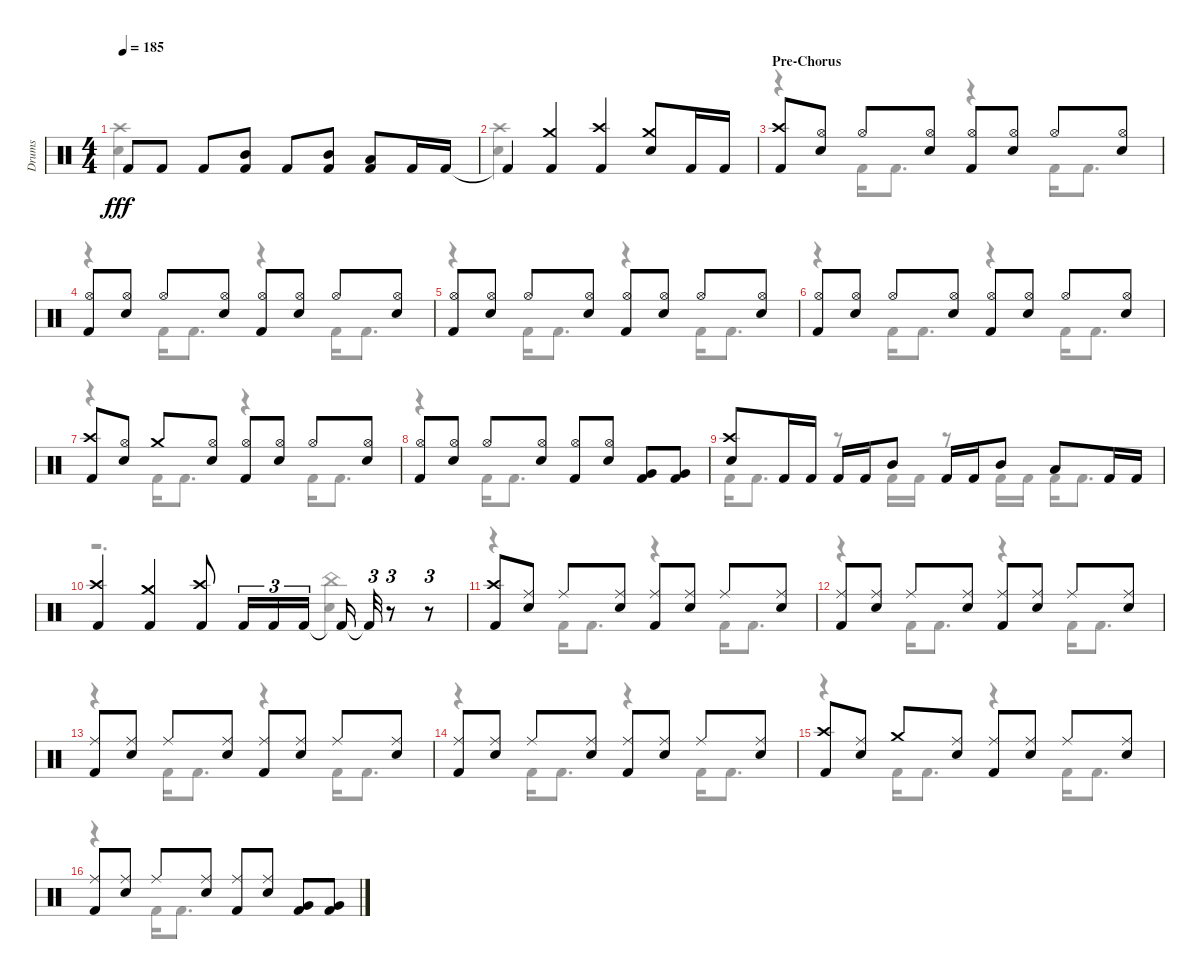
\track ("Drums" "Drums") {instrument percussion}
\staff {score}
\articulation defaults
\voice
\ts (4 4)
\tempo 185
\clef neutral
\ks aminor "Kick (hit) 2"{t}.8{dy fff} "Kick (hit) 2".8 "Kick (hit) 2".8
("Mid Tom (hit)" "Kick (hit) 2").8 "Kick (hit) 2".8 ("Mid Tom (hit)" "Kick (hit) 2").8 ("Low Tom (hit)" "Kick (hit) 2").8 "Kick (hit) 2".16 "Kick (hit) 2".16 |
"Kick (hit) 2"{t}.4 ("Crash medium (hit)" "Kick (hit) 2").4 ("Crash high (hit)" "Kick (hit) 2").4 ("Crash medium (hit)" "Snare (hit) 2").8 "Kick (hit) 2".16 "Kick (hit) 2".16 |
\section ("" "Pre-Chorus")
("Crash high (hit)" "Kick (hit) 2").8 ("Snare (hit) 2" "Hi-Hat (open)").8 "Hi-Hat (open)".8 ("Snare (hit) 2" "Hi-Hat (open)").8 ("Hi-Hat (open)" "Kick (hit) 2").8 ("Hi-Hat (open)" "Snare (hit) 2").8 "Hi-Hat (open)".8 ("Hi-Hat (open)" "Snare (hit) 2").8 |
("Hi-Hat (open)" "Kick (hit) 2").8 ("Hi-Hat (open)" "Snare (hit) 2").8 "Hi-Hat (open)".8 ("Snare (hit) 2" "Hi-Hat (open)").8 ("Hi-Hat (open)" "Kick (hit) 2").8 ("Snare (hit) 2" "Hi-Hat (open)").8 "Hi-Hat (open)".8 ("Snare (hit) 2" "Hi-Hat (open)").8 |
("Kick (hit) 2" "Hi-Hat (open)").8 ("Hi-Hat (open)" "Snare (hit) 2").8 "Hi-Hat (open)".8 ("Snare (hit) 2" "Hi-Hat (open)").8 ("Hi-Hat (open)" "Kick (hit) 2").8 ("Hi-Hat (open)" "Snare (hit) 2").8 "Hi-Hat (open)".8 ("Snare (hit) 2" "Hi-Hat (open)").8 |
("Hi-Hat (open)" "Kick (hit) 2").8 ("Snare (hit) 2" "Hi-Hat (open)").8 "Hi-Hat (open)".8 ("Snare (hit) 2" "Hi-Hat (open)").8 ("Hi-Hat (open)" "Kick (hit) 2").8 ("Hi-Hat (open)" "Snare (hit) 2").8 "Hi-Hat (open)".8 ("Hi-Hat (open)" "Snare (hit) 2").8 |
("Kick (hit) 2" "Crash high (hit)").8 ("Snare (hit) 2" "Hi-Hat (open)").8 "Crash medium (hit)".8 ("Snare (hit) 2" "Hi-Hat (open)").8 ("Kick (hit) 2" "Hi-Hat (open)").8 ("Snare (hit) 2" "Hi-Hat (open)").8 "Hi-Hat (open)".8 ("Hi-Hat (open)" "Snare (hit) 2").8 |
("Hi-Hat (open)" "Kick (hit) 2").8 ("Hi-Hat (open)" "Snare (hit) 2").8 "Hi-Hat (open)".8 ("Snare (hit) 2" "Hi-Hat (open)").8 ("Kick (hit) 2" "Hi-Hat (open)").8 ("Snare (hit) 2" "Hi-Hat (open)").8 ("Very Low Tom (hit)" "Kick (hit) 2").8 ("Very Low Tom (hit)" "Kick (hit) 2").8 |
("Crash high (hit)" "Snare (hit) 2").8 "Kick (hit) 2".16 "Kick (hit) 2".16 "Kick (hit) 2".16 "Kick (hit) 2".16 "Mid Tom (hit)".8 "Kick (hit) 2".16 "Kick (hit) 2".16 "Mid Tom (hit)".8 "Low Tom (hit)".8 "Kick (hit) 2".16 "Kick (hit) 2".16 |
("Kick (hit) 2" "Crash high (hit)").4 ("Crash medium (hit)" "Kick (hit) 2").4 ("Kick (hit) 2" "Crash high (hit)").8 "Kick (hit) 2".16{tu (3 2)} "Kick (hit) 2".16{tu (3 2)} "Kick (hit) 2".16{tu (3 2)} "Kick (hit) 2"{t}.16 "Kick (hit) 2"{t}.32{tu (3 2)} r.8{tu (3 2)} r.8{tu (3 2)} |
("Kick (hit) 2" "Crash high (hit)").8 ("Ride (middle)" "Snare (hit) 2").8 "Ride (middle)".8 ("Ride (middle)" "Snare (hit) 2").8 ("Ride (middle)" "Kick (hit) 2").8 ("Ride (middle)" "Snare (hit) 2").8 "Ride (middle)".8 ("Ride (middle)" "Snare (hit) 2").8 |
("Ride (middle)" "Kick (hit) 2").8 ("Snare (hit) 2" "Ride (middle)").8 "Ride (middle)".8 ("Snare (hit) 2" "Ride (middle)").8 ("Kick (hit) 2" "Ride (middle)").8 ("Ride (middle)" "Snare (hit) 2").8 "Ride (middle)".8 ("Snare (hit) 2" "Ride (middle)").8 |
("Ride (middle)" "Kick (hit) 2").8 ("Ride (middle)" "Snare (hit) 2").8 "Ride (middle)".8 ("Ride (middle)" "Snare (hit) 2").8 ("Ride (middle)" "Kick (hit) 2").8 ("Snare (hit) 2" "Ride (middle)").8 "Ride (middle)".8 ("Ride (middle)" "Snare (hit) 2").8 |
("Kick (hit) 2" "Ride (middle)").8 ("Snare (hit) 2" "Ride (middle)").8 "Ride (middle)".8 ("Ride (middle)" "Snare (hit) 2").8 ("Kick (hit) 2" "Ride (middle)").8 ("Ride (middle)" "Snare (hit) 2").8 "Ride (middle)".8 ("Ride (middle)" "Snare (hit) 2").8 |
("Kick (hit) 2" "Crash high (hit)").8 ("Ride (middle)" "Snare (hit) 2").8 "Crash medium (hit)".8 ("Snare (hit) 2" "Ride (middle)").8 ("Ride (middle)" "Kick (hit) 2").8 ("Ride (middle)" "Snare (hit) 2").8 "Ride (middle)".8 ("Ride (middle)" "Snare (hit) 2").8 |
("Ride (middle)" "Kick (hit) 2").8 ("Snare (hit) 2" "Ride (middle)").8 "Ride (middle)".8 ("Snare (hit) 2" "Ride (middle)").8 ("Ride (middle)" "Kick (hit) 2").8 ("Ride (middle)" "Snare (hit) 2").8 ("Kick (hit) 2" "Very Low Tom (hit)").8 ("Very Low Tom (hit)" "Kick (hit) 2").8
\voice
\clef neutral
\ottava regular
\simile none
\ks aminor
("Crash high (hit)" "Snare (hit) 2").4{dy fff} |
("Snare (hit) 2" "Crash high (hit)").4 |
r.4 "Kick (hit) 2".16 "Kick (hit) 2".8{d} r.4 "Kick (hit) 2".16 "Kick (hit) 2".8{d} |
r.4 "Kick (hit) 2".16 "Kick (hit) 2".8{d} r.4 "Kick (hit) 2".16 "Kick (hit) 2".8{d} |
r.4 "Kick (hit) 2".16 "Kick (hit) 2".8{d} r.4 "Kick (hit) 2".16 "Kick (hit) 2".8{d} |
r.4 "Kick (hit) 2".16 "Kick (hit) 2".8{d} r.4 "Kick (hit) 2".16 "Kick (hit) 2".8{d} |
r.4 "Kick (hit) 2".16 "Kick (hit) 2".8{d} r.4 "Kick (hit) 2".16 "Kick (hit) 2".8{d} |
r.4 "Kick (hit) 2".16 "Kick (hit) 2".8{d} |
"Kick (hit) 2".16 "Kick (hit) 2".8{d} r.8 "Kick (hit) 2".16 "Kick (hit) 2".16 r.8 "Kick (hit) 2".16 "Kick (hit) 2".16 "Kick (hit) 2".16 "Kick (hit) 2".8{d} |
r.2{d} ("China (hit)" "Snare (hit) 2").4 |
r.4 "Kick (hit) 2".16 "Kick (hit) 2".8{d} r.4 "Kick (hit) 2".16 "Kick (hit) 2".8{d} |
r.4 "Kick (hit) 2".16 "Kick (hit) 2".8{d} r.4 "Kick (hit) 2".16 "Kick (hit) 2".8{d} |
r.4 "Kick (hit) 2".16 "Kick (hit) 2".8{d} r.4 "Kick (hit) 2".16 "Kick (hit) 2".8{d} |
r.4 "Kick (hit) 2".16 "Kick (hit) 2".8{d} r.4 "Kick (hit) 2".16 "Kick (hit) 2".8{d} |
r.4 "Kick (hit) 2".16 "Kick (hit) 2".8{d} r.4 "Kick (hit) 2".16 "Kick (hit) 2".8{d} |
r.4 "Kick (hit) 2".16 "Kick (hit) 2".8{d}
